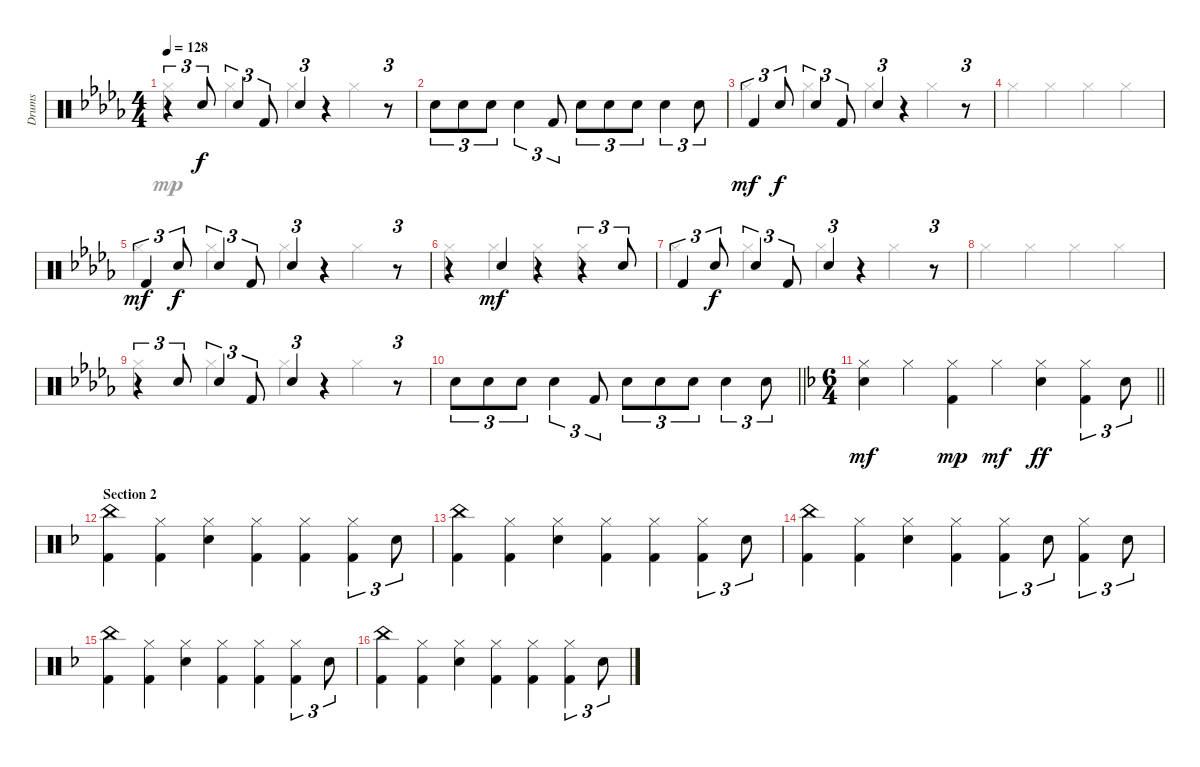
\track ("Drums" "Drums") {instrument percussion}
\staff {score}
\articulation defaults
\voice
\ts (4 4)
\tempo 128
\clef neutral
\ks db
r.4{tu (3 2) dy f} "Electric Snare (hit)".8{tu (3 2)} "Electric Snare (hit)".4{tu (3 2)} "Kick (hit) 2".8{tu (3 2)} "Electric Snare (hit)".4{tu (3 2)} r.4 r.8{tu (3 2)} |
"Electric Snare (hit)".8{tu (3 2)} "Electric Snare (hit)".8{tu (3 2)} "Electric Snare (hit)".8{tu (3 2)} "Electric Snare (hit)".4{tu (3 2)} "Kick (hit) 2".8{tu (3 2)} "Electric Snare (hit)".8{tu (3 2)} "Electric Snare (hit)".8{tu (3 2)} "Electric Snare (hit)".8{tu (3 2)} "Electric Snare (hit)".4{tu (3 2)} "Electric Snare (hit)".8{tu (3 2)} |
"Kick (hit) 2".4{tu (3 2) dy mf} "Electric Snare (hit)".8{tu (3 2) dy f} "Electric Snare (hit)".4{tu (3 2)} "Kick (hit) 2".8{tu (3 2)} "Electric Snare (hit)".4{tu (3 2)} r.4 r.8{tu (3 2)} |
|
"Kick (hit) 2".4{tu (3 2) dy mf} "Electric Snare (hit)".8{tu (3 2) dy f} "Electric Snare (hit)".4{tu (3 2)} "Kick (hit) 2".8{tu (3 2)} "Electric Snare (hit)".4{tu (3 2)} r.4 r.8{tu (3 2)} |
r.4 "Electric Snare (hit)".4{dy mf} r.4 r.4{tu (3 2)} "Electric Snare (hit)".8{tu (3 2)} |
"Kick (hit) 2".4{tu (3 2)} "Electric Snare (hit)".8{tu (3 2) dy f} "Electric Snare (hit)".4{tu (3 2)} "Kick (hit) 2".8{tu (3 2)} "Electric Snare (hit)".4{tu (3 2)} r.4 r.8{tu (3 2)} |
|
r.4{tu (3 2)} "Electric Snare (hit)".8{tu (3 2)} "Electric Snare (hit)".4{tu (3 2)} "Kick (hit) 2".8{tu (3 2)} "Electric Snare (hit)".4{tu (3 2)} r.4 r.8{tu (3 2)} |
\barLineRight lightlight "Electric Snare (hit)".8{tu (3 2)} "Electric Snare (hit)".8{tu (3 2)} "Electric Snare (hit)".8{tu (3 2)} "Electric Snare (hit)".4{tu (3 2)} "Kick (hit) 2".8{tu (3 2)} "Electric Snare (hit)".8{tu (3 2)} "Electric Snare (hit)".8{tu (3 2)} "Electric Snare (hit)".8{tu (3 2)} "Electric Snare (hit)".4{tu (3 2)} "Electric Snare (hit)".8{tu (3 2)}
|
\ts (6 4)
\section ("" "")
\barLineRight lightlight
\ks f
("Hi-Hat (closed)" "Snare (hit) 2").4{dy mf} "Hi-Hat (closed)".4 ("Hi-Hat (closed)" "Kick (hit) 2").4{dy mp} "Hi-Hat (closed)".4{dy mf} ("Hi-Hat (closed)" "Snare (hit) 2").4{dy ff} ("Hi-Hat (closed)" "Kick (hit) 2").4{tu (3 2)} "Snare (hit) 2".8{tu (3 2)} |
\section ("" "Section 2")
("China (hit)" "Kick (hit) 2").4 ("Hi-Hat (closed)" "Kick (hit) 2").4 ("Hi-Hat (closed)" "Snare (hit) 2").4 ("Hi-Hat (closed)" "Kick (hit) 2").4 ("Hi-Hat (closed)" "Kick (hit) 2").4 ("Hi-Hat (closed)" "Kick (hit) 2").4{tu (3 2)} "Snare (hit) 2".8{tu (3 2)} |
("China (hit)" "Kick (hit) 2").4 ("Hi-Hat (closed)" "Kick (hit) 2").4 ("Hi-Hat (closed)" "Snare (hit) 2").4 ("Hi-Hat (closed)" "Kick (hit) 2").4 ("Hi-Hat (closed)" "Kick (hit) 2").4 ("Hi-Hat (closed)" "Kick (hit) 2").4{tu (3 2)} "Snare (hit) 2".8{tu (3 2)} |
("China (hit)" "Kick (hit) 2").4 ("Hi-Hat (closed)" "Kick (hit) 2").4 ("Hi-Hat (closed)" "Snare (hit) 2").4 ("Hi-Hat (closed)" "Kick (hit) 2").4 ("Hi-Hat (closed)" "Kick (hit) 2").4{tu (3 2)} "Snare (hit) 2".8{tu (3 2)} ("Hi-Hat (closed)" "Kick (hit) 2").4{tu (3 2)} "Snare (hit) 2".8{tu (3 2)} |
("China (hit)" "Kick (hit) 2").4 ("Hi-Hat (closed)" "Kick (hit) 2").4 ("Hi-Hat (closed)" "Snare (hit) 2").4 ("Hi-Hat (closed)" "Kick (hit) 2").4 ("Hi-Hat (closed)" "Kick (hit) 2").4 ("Hi-Hat (closed)" "Kick (hit) 2").4{tu (3 2)} "Snare (hit) 2".8{tu (3 2)} |
("China (hit)" "Kick (hit) 2").4 ("Hi-Hat (closed)" "Kick (hit) 2").4 ("Hi-Hat (closed)" "Snare (hit) 2").4 ("Hi-Hat (closed)" "Kick (hit) 2").4 ("Hi-Hat (closed)" "Kick (hit) 2").4 ("Hi-Hat (closed)" "Kick (hit) 2").4{tu (3 2)} "Snare (hit) 2".8{tu (3 2)}
\voice
\clef neutral
\ottava regular
\simile none
\ks db "Hi-Hat (closed)".4{dy mp} "Hi-Hat (closed)".4 "Hi-Hat (closed)".4 "Hi-Hat (closed)".4
|
|
"Hi-Hat (closed)".4 "Hi-Hat (closed)".4 "Hi-Hat (closed)".4 "Hi-Hat (closed)".4 |
"Hi-Hat (closed)".4 "Hi-Hat (closed)".4 "Hi-Hat (closed)".4 "Hi-Hat (closed)".4 |
"Hi-Hat (closed)".4 "Hi-Hat (closed)".4 "Hi-Hat (closed)".4 "Hi-Hat (closed)".4 |
"Hi-Hat (closed)".4 "Hi-Hat (closed)".4 "Hi-Hat (closed)".4 "Hi-Hat (closed)".4 |
"Hi-Hat (closed)".4 "Hi-Hat (closed)".4 "Hi-Hat (closed)".4 "Hi-Hat (closed)".4 |
"Hi-Hat (closed)".4 "Hi-Hat (closed)".4 "Hi-Hat (closed)".4 "Hi-Hat (closed)".4 |
"Hi-Hat (closed)".4 "Hi-Hat (closed)".4 "Hi-Hat (closed)".4 "Hi-Hat (closed)".4 |
\barLineRight lightlight
|
\barLineRight lightlight
\ks f
|
|
|
|
|
